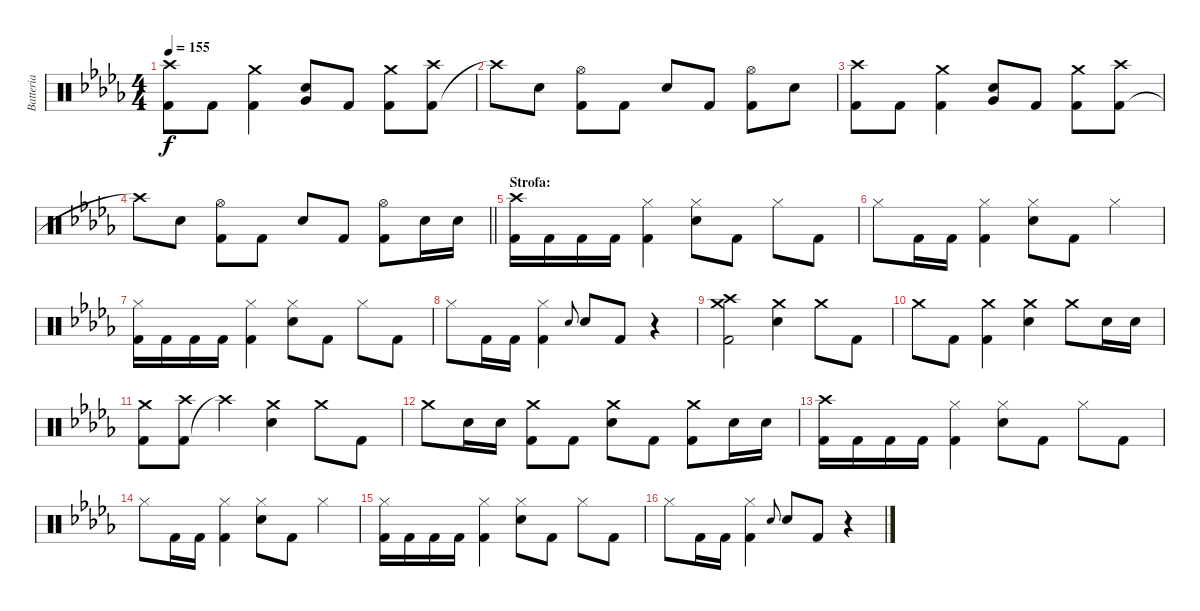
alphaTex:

\track ("Batteria" "Batteria") {instrument percussion}
\staff {score}
\articulation defaults
\ts (4 4)
\tempo 155
\clef neutral
\ks bbminor
("Kick (hit) 2" "Crash high (hit)").8{dy f} "Kick (hit) 2".8 ("Kick (hit) 2" "Crash medium (hit)").4 ("Snare (hit) 2" "Very Low Tom (hit)").8 "Kick (hit) 2".8 ("Kick (hit) 2" "Crash medium (hit)").8 ("Kick (hit) 2" "Crash high (hit)").8 |
"Crash high (hit)"{t}.8 "Snare (hit) 2".8 ("Kick (hit) 2" "Hi-Hat (open)").8 "Kick (hit) 2".8 "Snare (hit) 2".8 "Kick (hit) 2".8 ("Kick (hit) 2" "Hi-Hat (open)").8 "Snare (hit) 2".8 |
("Kick (hit) 2" "Crash high (hit)").8 "Kick (hit) 2".8 ("Kick (hit) 2" "Crash medium (hit)").4 ("Snare (hit) 2" "Very Low Tom (hit)").8 "Kick (hit) 2".8 ("Kick (hit) 2" "Crash medium (hit)").8 ("Kick (hit) 2" "Crash high (hit)").8 |
\barLineRight lightlight "Crash high (hit)"{t}.8 "Snare (hit) 2".8
("Kick (hit) 2" "Hi-Hat (open)").8 "Kick (hit) 2".8 "Snare (hit) 2".8 "Kick (hit) 2".8 ("Kick (hit) 2" "Hi-Hat (open)").8 "Snare (hit) 2".16 "Snare (hit) 2".16 |
\section ("" "Strofa:")
("Kick (hit) 2" "Crash high (hit)").16 "Kick (hit) 2".16 "Kick (hit) 2".16 "Kick (hit) 2".16 ("Kick (hit) 2" "Hi-Hat (closed)").4 ("Snare (hit) 2" "Hi-Hat (closed)").8 "Kick (hit) 2".8 "Hi-Hat (closed)".8 "Kick (hit) 2".8 |
"Hi-Hat (closed)".8 "Kick (hit) 2".16 "Kick (hit) 2".16 ("Kick (hit) 2" "Hi-Hat (closed)").4 ("Snare (hit) 2" "Hi-Hat (closed)").8 "Kick (hit) 2".8 "Hi-Hat (closed)".4 |
("Kick (hit) 2" "Hi-Hat (closed)").16 "Kick (hit) 2".16 "Kick (hit) 2".16 "Kick (hit) 2".16 ("Kick (hit) 2" "Hi-Hat (closed)").4 ("Snare (hit) 2" "Hi-Hat (closed)").8 "Kick (hit) 2".8 "Hi-Hat (closed)".8 "Kick (hit) 2".8 |
"Hi-Hat (closed)".8 "Kick (hit) 2".16 "Kick (hit) 2".16 ("Kick (hit) 2" "Hi-Hat (closed)").4 "Snare (hit) 2".8{gr onbeat} "Snare (hit) 2".8 "Kick (hit) 2".8 r.4 |
("Kick (hit) 2" "Crash medium (hit)" "Crash high (hit)").2 ("Snare (hit) 2" "Crash medium (hit)").4 "Crash medium (hit)".8 "Kick (hit) 2".8 |
"Crash medium (hit)".8 "Kick (hit) 2".8 ("Kick (hit) 2" "Crash medium (hit)").4 ("Snare (hit) 2" "Crash medium (hit)").4 "Crash medium (hit)".8 "Snare (hit) 2".16 "Snare (hit) 2".16 |
("Kick (hit) 2" "Crash medium (hit)").8 ("Kick (hit) 2" "Crash high (hit)").8 "Crash high (hit)"{t}.4 ("Snare (hit) 2" "Crash medium (hit)").4 "Crash medium (hit)".8 "Kick (hit) 2".8 |
"Crash medium (hit)".8 "Snare (hit) 2".16 "Snare (hit) 2".16 ("Kick (hit) 2" "Crash medium (hit)").8 "Kick (hit) 2".8 ("Snare (hit) 2" "Crash medium (hit)").8 "Kick (hit) 2".8 ("Kick (hit) 2" "Crash medium (hit)").8 "Snare (hit) 2".16 "Snare (hit) 2".16 |
("Kick (hit) 2" "Crash high (hit)").16 "Kick (hit) 2".16 "Kick (hit) 2".16 "Kick (hit) 2".16 ("Kick (hit) 2" "Hi-Hat (closed)").4 ("Snare (hit) 2" "Hi-Hat (closed)").8 "Kick (hit) 2".8 "Hi-Hat (closed)".8 "Kick (hit) 2".8 |
"Hi-Hat (closed)".8 "Kick (hit) 2".16 "Kick (hit) 2".16 ("Kick (hit) 2" "Hi-Hat (closed)").4 ("Snare (hit) 2" "Hi-Hat (closed)").8 "Kick (hit) 2".8 "Hi-Hat (closed)".4 |
("Kick (hit) 2" "Hi-Hat (closed)").16 "Kick (hit) 2".16 "Kick (hit) 2".16 "Kick (hit) 2".16 ("Kick (hit) 2" "Hi-Hat (closed)").4 ("Snare (hit) 2" "Hi-Hat (closed)").8 "Kick (hit) 2".8 "Hi-Hat (closed)".8 "Kick (hit) 2".8 |
"Hi-Hat (closed)".8 "Kick (hit) 2".16 "Kick (hit) 2".16 ("Kick (hit) 2" "Hi-Hat (closed)").4 "Snare (hit) 2".8{gr onbeat} "Snare (hit) 2".8 "Kick (hit) 2".8 r.4
